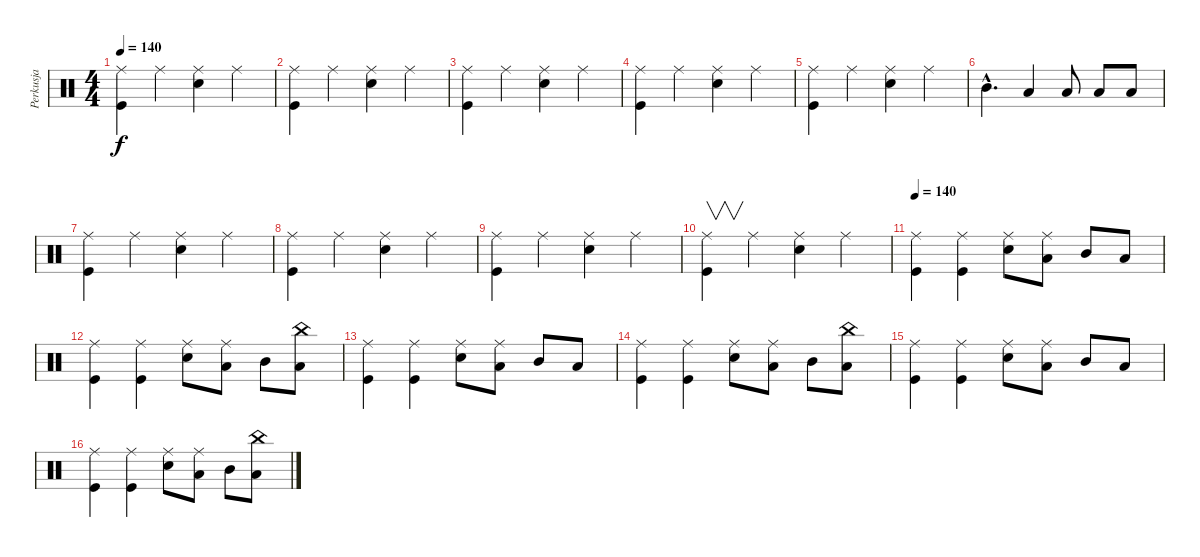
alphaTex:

\track ("Perkusja" "Perkusja") {instrument percussion}
\staff {score}
\articulation defaults
\ts (4 4)
\tempo 140
\clef neutral
\ks c
("Ride (middle)" "Kick (hit)").4{dy f} "Ride (middle)".4 ("Ride (middle)" "Snare (hit) 2").4 "Ride (middle)".4 |
("Ride (middle)" "Kick (hit)").4 "Ride (middle)".4 ("Ride (middle)" "Snare (hit) 2").4 "Ride (middle)".4 |
("Ride (middle)" "Kick (hit)").4 "Ride (middle)".4 ("Ride (middle)" "Snare (hit) 2").4 "Ride (middle)".4 |
("Ride (middle)" "Kick (hit)").4 "Ride (middle)".4 ("Ride (middle)" "Snare (hit) 2").4 "Ride (middle)".4 |
("Ride (middle)" "Kick (hit)").4 "Ride (middle)".4 ("Ride (middle)" "Snare (hit) 2").4 "Ride (middle)".4 |
"Mid Tom (hit)"{hac}.4{d} "Low Tom (hit)".4 "Low Tom (hit)".8 "Low Tom (hit)".8 "Low Floor Tom (hit)".8 |
("Ride (middle)" "Kick (hit)").4 "Ride (middle)".4 ("Ride (middle)" "Snare (hit) 2").4 "Ride (middle)".4 |
("Ride (middle)" "Kick (hit)").4 "Ride (middle)".4 ("Ride (middle)" "Snare (hit) 2").4 "Ride (middle)".4 |
("Ride (middle)" "Kick (hit)").4 "Ride (middle)".4 ("Ride (middle)" "Snare (hit) 2").4 "Ride (middle)".4 |
("Ride (middle)" "Kick (hit)").4{v} "Ride (middle)".4 ("Ride (middle)" "Snare (hit) 2").4 "Ride (middle)".4 |
\tempo 135
\tempo 140
("Ride (middle)" "Kick (hit)").4 ("Ride (middle)" "Kick (hit)").4 ("Ride (middle)" "Snare (hit) 2").8 ("Ride (middle)" "Low Tom (hit)").8 "Mid Tom (hit)".8 "Low Floor Tom (hit)".8 |
("Ride (middle)" "Kick (hit)").4 ("Ride (middle)" "Kick (hit)").4 ("Ride (middle)" "Snare (hit) 2").8 ("Ride (middle)" "Low Tom (hit)").8 "Mid Tom (hit)".8 ("China (hit)" "Low Floor Tom (hit)").8 |
("Ride (middle)" "Kick (hit)").4 ("Ride (middle)" "Kick (hit)").4 ("Ride (middle)" "Snare (hit) 2").8 ("Ride (middle)" "Low Tom (hit)").8 "Mid Tom (hit)".8 "Low Floor Tom (hit)".8 |
("Ride (middle)" "Kick (hit)").4 ("Ride (middle)" "Kick (hit)").4 ("Ride (middle)" "Snare (hit) 2").8 ("Ride (middle)" "Low Tom (hit)").8 "Mid Tom (hit)".8 ("China (hit)" "Low Floor Tom (hit)").8 |
("Ride (middle)" "Kick (hit)").4 ("Ride (middle)" "Kick (hit)").4 ("Ride (middle)" "Snare (hit) 2").8 ("Ride (middle)" "Low Tom (hit)").8 "Mid Tom (hit)".8 "Low Floor Tom (hit)".8 |
("Ride (middle)" "Kick (hit)").4 ("Ride (middle)" "Kick (hit)").4 ("Ride (middle)" "Snare (hit) 2").8 ("Ride (middle)" "Low Tom (hit)").8 "Mid Tom (hit)".8 ("China (hit)" "Low Floor Tom (hit)").8
